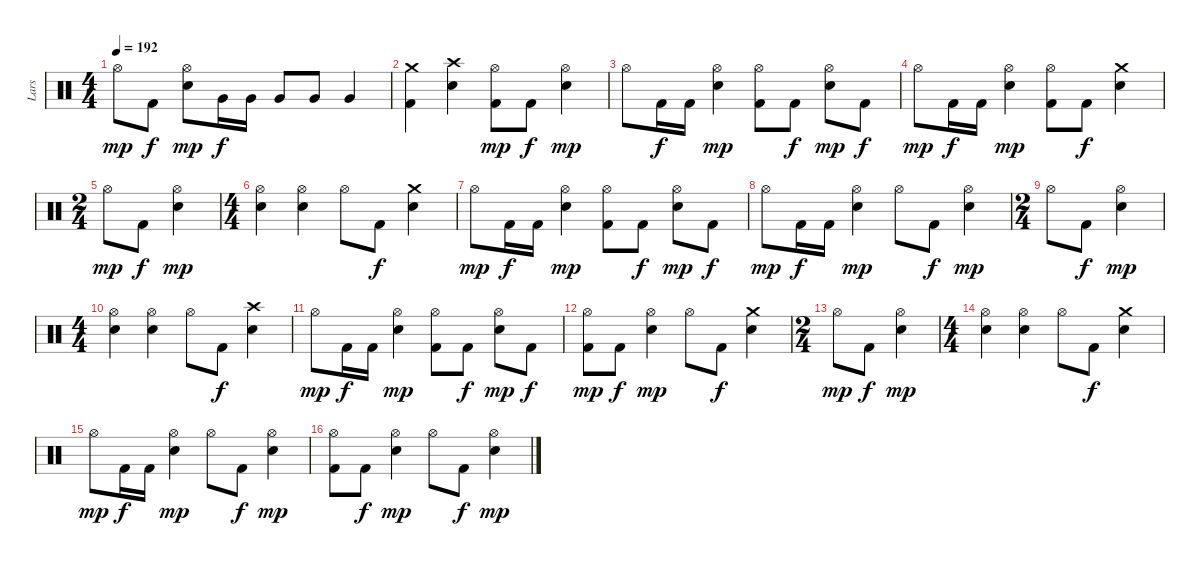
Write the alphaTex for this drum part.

\track ("Lars" "Lars") {instrument percussion}
\staff {score}
\articulation defaults
\ts (4 4)
\tempo 192
\clef neutral
\ks c "Hi-Hat (open)".8{dy mp} "Kick (hit) 2".8{dy f}
("Hi-Hat (open)" "Snare (hit) 2").8{dy mp} "Very Low Tom (hit)".16{dy f} "Very Low Tom (hit)".16 "Very Low Tom (hit)".8 "Very Low Tom (hit)".8 "Very Low Tom (hit)".4 |
("Crash medium (hit)" "Kick (hit) 2").4 ("Crash high (hit)" "Snare (hit) 2").4 ("Hi-Hat (open)" "Kick (hit) 2").8{dy mp} "Kick (hit) 2".8{dy f} ("Hi-Hat (open)" "Snare (hit) 2").4{dy mp} |
"Hi-Hat (open)".8 "Kick (hit) 2".16{dy f} "Kick (hit) 2".16 ("Hi-Hat (open)" "Snare (hit) 2").4{dy mp} ("Hi-Hat (open)" "Kick (hit) 2").8 "Kick (hit) 2".8{dy f} ("Hi-Hat (open)" "Snare (hit) 2").8{dy mp} "Kick (hit) 2".8{dy f} |
"Hi-Hat (open)".8{dy mp} "Kick (hit) 2".16{dy f} "Kick (hit) 2".16 ("Hi-Hat (open)" "Snare (hit) 2").4{dy mp} ("Hi-Hat (open)" "Kick (hit) 2").8 "Kick (hit) 2".8{dy f} ("Crash medium (hit)" "Snare (hit) 2").4 |
\ts (2 4)
"Hi-Hat (open)".8{dy mp} "Kick (hit) 2".8{dy f} ("Hi-Hat (open)" "Snare (hit) 2").4{dy mp} |
\ts (4 4)
("Hi-Hat (open)" "Snare (hit) 2").4 ("Hi-Hat (open)" "Snare (hit) 2").4 "Hi-Hat (open)".8 "Kick (hit) 2".8{dy f} ("Crash medium (hit)" "Snare (hit) 2").4 |
"Hi-Hat (open)".8{dy mp} "Kick (hit) 2".16{dy f} "Kick (hit) 2".16 ("Hi-Hat (open)" "Snare (hit) 2").4{dy mp} ("Hi-Hat (open)" "Kick (hit) 2").8 "Kick (hit) 2".8{dy f} ("Hi-Hat (open)" "Snare (hit) 2").8{dy mp} "Kick (hit) 2".8{dy f} |
"Hi-Hat (open)".8{dy mp} "Kick (hit) 2".16{dy f} "Kick (hit) 2".16 ("Hi-Hat (open)" "Snare (hit) 2").4{dy mp} "Hi-Hat (open)".8 "Kick (hit) 2".8{dy f} ("Hi-Hat (open)" "Snare (hit) 2").4{dy mp} |
\ts (2 4)
"Hi-Hat (open)".8 "Kick (hit) 2".8{dy f} ("Hi-Hat (open)" "Snare (hit) 2").4{dy mp} |
\ts (4 4)
("Hi-Hat (open)" "Snare (hit) 2").4 ("Hi-Hat (open)" "Snare (hit) 2").4 "Hi-Hat (open)".8 "Kick (hit) 2".8{dy f} ("Crash high (hit)" "Snare (hit) 2").4 |
"Hi-Hat (open)".8{dy mp} "Kick (hit) 2".16{dy f} "Kick (hit) 2".16 ("Hi-Hat (open)" "Snare (hit) 2").4{dy mp} ("Hi-Hat (open)" "Kick (hit) 2").8 "Kick (hit) 2".8{dy f} ("Hi-Hat (open)" "Snare (hit) 2").8{dy mp} "Kick (hit) 2".8{dy f} |
("Hi-Hat (open)" "Kick (hit) 2").8{dy mp} "Kick (hit) 2".8{dy f} ("Hi-Hat (open)" "Snare (hit) 2").4{dy mp} "Hi-Hat (open)".8 "Kick (hit) 2".8{dy f} ("Crash medium (hit)" "Snare (hit) 2").4 |
\ts (2 4)
"Hi-Hat (open)".8{dy mp} "Kick (hit) 2".8{dy f} ("Hi-Hat (open)" "Snare (hit) 2").4{dy mp} |
\ts (4 4)
("Hi-Hat (open)" "Snare (hit) 2").4 ("Hi-Hat (open)" "Snare (hit) 2").4 "Hi-Hat (open)".8 "Kick (hit) 2".8{dy f} ("Crash medium (hit)" "Snare (hit) 2").4 |
"Hi-Hat (open)".8{dy mp} "Kick (hit) 2".16{dy f} "Kick (hit) 2".16 ("Hi-Hat (open)" "Snare (hit) 2").4{dy mp} "Hi-Hat (open)".8 "Kick (hit) 2".8{dy f} ("Hi-Hat (open)" "Snare (hit) 2").4{dy mp} |
("Hi-Hat (open)" "Kick (hit) 2").8 "Kick (hit) 2".8{dy f} ("Hi-Hat (open)" "Snare (hit) 2").4{dy mp} "Hi-Hat (open)".8 "Kick (hit) 2".8{dy f} ("Hi-Hat (open)" "Snare (hit) 2").4{dy mp}
